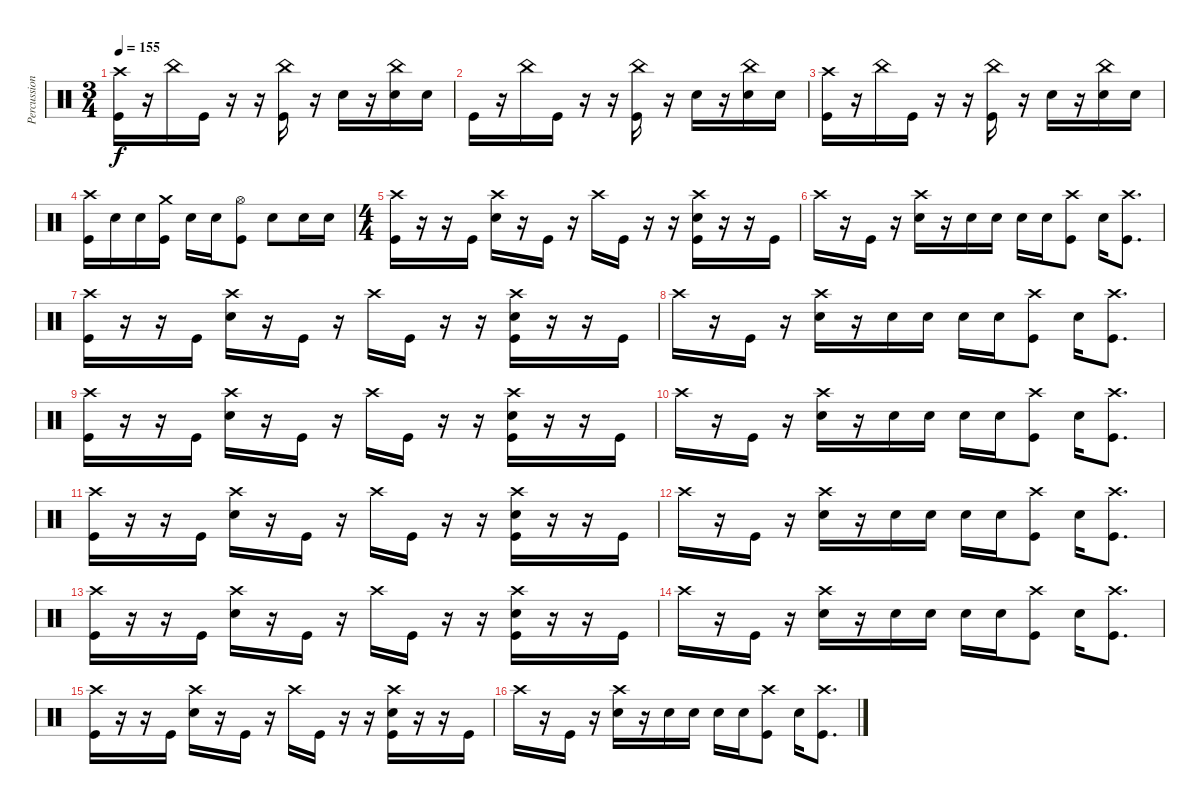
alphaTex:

\track ("Percussion" "Percussion") {instrument percussion}
\staff {score}
\articulation defaults
\ts (3 4)
\tempo 155
\clef neutral
\ks c
("Crash high (hit)" "Kick (hit)").16{dy f} r.16 "China (hit)".16 "Kick (hit)".16 r.16 r.16 ("Kick (hit)" "China (hit)").16 r.16 "Snare (hit) 2".16 r.16 ("Snare (hit) 2" "China (hit)").16 "Snare (hit) 2".16 |
"Kick (hit)".16 r.16 "China (hit)".16 "Kick (hit)".16 r.16 r.16 ("Kick (hit)" "China (hit)").16 r.16 "Snare (hit) 2".16 r.16 ("Snare (hit) 2" "China (hit)").16 "Snare (hit) 2".16 |
("Crash high (hit)" "Kick (hit)").16 r.16 "China (hit)".16 "Kick (hit)".16 r.16 r.16 ("Kick (hit)" "China (hit)").16 r.16 "Snare (hit) 2".16 r.16 ("Snare (hit) 2" "China (hit)").16 "Snare (hit) 2".16 |
("Kick (hit)" "Crash high (hit)").16 "Snare (hit) 2".16 "Snare (hit) 2".16 ("Kick (hit)" "Crash medium (hit)").16 "Snare (hit) 2".16 "Snare (hit) 2".16 ("Kick (hit)" "Hi-Hat (open)").8 "Snare (hit) 2".8 "Snare (hit) 2".16 "Snare (hit) 2".16 |
\ts (4 4)
("Crash high (hit)" "Kick (hit)").16 r.16 r.16 "Kick (hit)".16 ("Crash high (hit)" "Snare (hit) 2").16 r.16 "Kick (hit)".16 r.16 "Crash high (hit)".16 "Kick (hit)".16 r.16 r.16 ("Crash high (hit)" "Kick (hit)" "Snare (hit) 2").16 r.16 r.16 "Kick (hit)".16 |
"Crash high (hit)".16 r.16 "Kick (hit)".16 r.16 ("Crash high (hit)" "Snare (hit) 2").16 r.16 "Snare (hit) 2".16 "Snare (hit) 2".16 "Snare (hit) 2".16 "Snare (hit) 2".16 ("Kick (hit)" "Crash high (hit)").8 "Snare (hit) 2".16 ("Kick (hit)" "Crash high (hit)").8{d} |
("Crash high (hit)" "Kick (hit)").16 r.16 r.16 "Kick (hit)".16 ("Crash high (hit)" "Snare (hit) 2").16 r.16 "Kick (hit)".16 r.16 "Crash high (hit)".16 "Kick (hit)".16 r.16 r.16 ("Crash high (hit)" "Kick (hit)" "Snare (hit) 2").16 r.16 r.16 "Kick (hit)".16 |
"Crash high (hit)".16 r.16 "Kick (hit)".16 r.16 ("Crash high (hit)" "Snare (hit) 2").16 r.16 "Snare (hit) 2".16 "Snare (hit) 2".16 "Snare (hit) 2".16 "Snare (hit) 2".16 ("Kick (hit)" "Crash high (hit)").8 "Snare (hit) 2".16 ("Kick (hit)" "Crash high (hit)").8{d} |
("Crash high (hit)" "Kick (hit)").16 r.16 r.16 "Kick (hit)".16 ("Crash high (hit)" "Snare (hit) 2").16 r.16 "Kick (hit)".16 r.16 "Crash high (hit)".16 "Kick (hit)".16 r.16 r.16 ("Crash high (hit)" "Kick (hit)" "Snare (hit) 2").16 r.16 r.16 "Kick (hit)".16 |
"Crash high (hit)".16 r.16 "Kick (hit)".16 r.16 ("Crash high (hit)" "Snare (hit) 2").16 r.16 "Snare (hit) 2".16 "Snare (hit) 2".16 "Snare (hit) 2".16 "Snare (hit) 2".16 ("Kick (hit)" "Crash high (hit)").8 "Snare (hit) 2".16 ("Kick (hit)" "Crash high (hit)").8{d} |
("Crash high (hit)" "Kick (hit)").16 r.16 r.16 "Kick (hit)".16 ("Crash high (hit)" "Snare (hit) 2").16 r.16 "Kick (hit)".16 r.16 "Crash high (hit)".16 "Kick (hit)".16 r.16 r.16 ("Crash high (hit)" "Kick (hit)" "Snare (hit) 2").16 r.16 r.16 "Kick (hit)".16 |
"Crash high (hit)".16 r.16 "Kick (hit)".16 r.16 ("Crash high (hit)" "Snare (hit) 2").16 r.16 "Snare (hit) 2".16 "Snare (hit) 2".16 "Snare (hit) 2".16 "Snare (hit) 2".16 ("Kick (hit)" "Crash high (hit)").8 "Snare (hit) 2".16 ("Kick (hit)" "Crash high (hit)").8{d} |
("Crash high (hit)" "Kick (hit)").16 r.16 r.16 "Kick (hit)".16 ("Crash high (hit)" "Snare (hit) 2").16 r.16 "Kick (hit)".16 r.16 "Crash high (hit)".16 "Kick (hit)".16 r.16 r.16 ("Crash high (hit)" "Kick (hit)" "Snare (hit) 2").16 r.16 r.16 "Kick (hit)".16 |
"Crash high (hit)".16 r.16 "Kick (hit)".16 r.16 ("Crash high (hit)" "Snare (hit) 2").16 r.16 "Snare (hit) 2".16 "Snare (hit) 2".16 "Snare (hit) 2".16 "Snare (hit) 2".16 ("Kick (hit)" "Crash high (hit)").8 "Snare (hit) 2".16 ("Kick (hit)" "Crash high (hit)").8{d} |
("Crash high (hit)" "Kick (hit)").16 r.16 r.16 "Kick (hit)".16 ("Crash high (hit)" "Snare (hit) 2").16 r.16 "Kick (hit)".16 r.16 "Crash high (hit)".16 "Kick (hit)".16 r.16 r.16 ("Crash high (hit)" "Kick (hit)" "Snare (hit) 2").16 r.16 r.16 "Kick (hit)".16 |
"Crash high (hit)".16 r.16 "Kick (hit)".16 r.16 ("Crash high (hit)" "Snare (hit) 2").16 r.16 "Snare (hit) 2".16 "Snare (hit) 2".16 "Snare (hit) 2".16 "Snare (hit) 2".16 ("Kick (hit)" "Crash high (hit)").8 "Snare (hit) 2".16 ("Kick (hit)" "Crash high (hit)").8{d}
